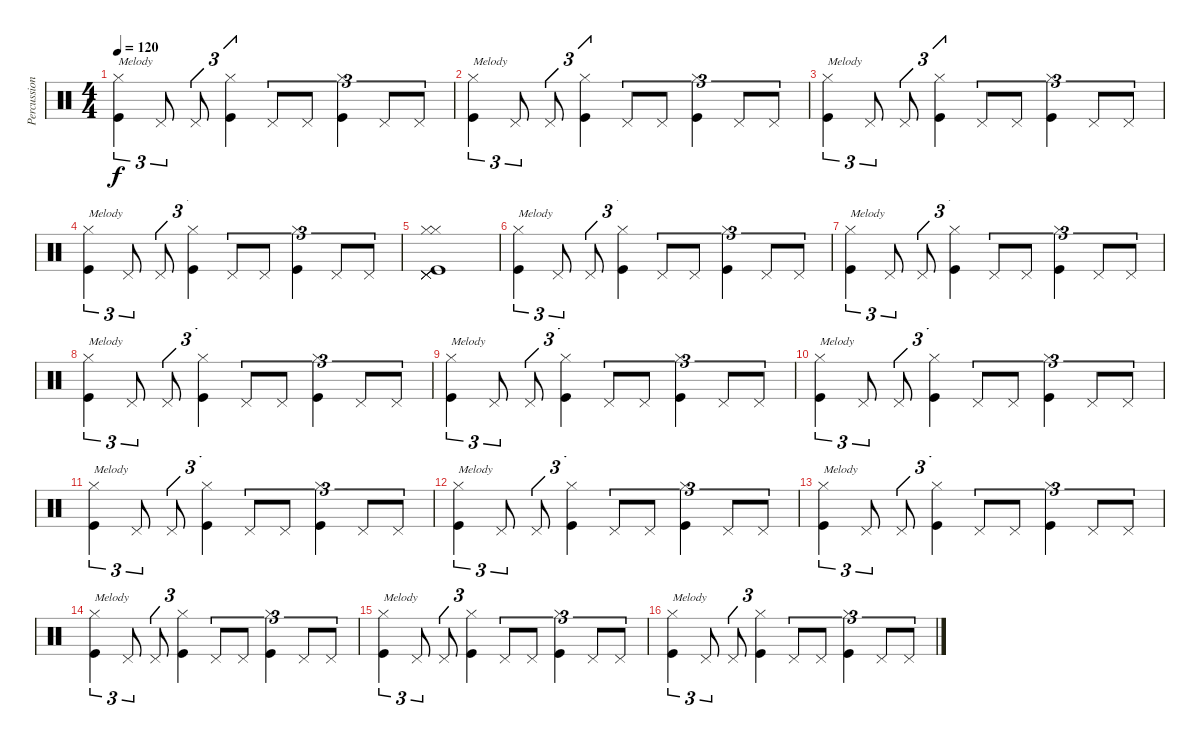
\track ("Percussions" "Percussion") {instrument percussion}
\staff {score}
\articulation defaults
\ts (4 4)
\tempo 120
\clef neutral
\ks c
("Hi-Hat (closed)" "Kick (hit)").4{tu (3 2) txt "Melody" dy f} "Pedal Hi-Hat (hit)".8{tu (3 2)} "Pedal Hi-Hat (hit)".8{tu (3 2)} ("Hi-Hat (closed)" "Kick (hit)").4{tu (3 2)} "Pedal Hi-Hat (hit)".8{tu (3 2)} "Pedal Hi-Hat (hit)".8{tu (3 2)} ("Hi-Hat (closed)" "Kick (hit)").4{tu (3 2)} "Pedal Hi-Hat (hit)".8{tu (3 2)} "Pedal Hi-Hat (hit)".8{tu (3 2)} |
("Hi-Hat (closed)" "Kick (hit)").4{tu (3 2) txt "Melody"} "Pedal Hi-Hat (hit)".8{tu (3 2)} "Pedal Hi-Hat (hit)".8{tu (3 2)} ("Hi-Hat (closed)" "Kick (hit)").4{tu (3 2)} "Pedal Hi-Hat (hit)".8{tu (3 2)} "Pedal Hi-Hat (hit)".8{tu (3 2)} ("Hi-Hat (closed)" "Kick (hit)").4{tu (3 2)} "Pedal Hi-Hat (hit)".8{tu (3 2)} "Pedal Hi-Hat (hit)".8{tu (3 2)} |
("Hi-Hat (closed)" "Kick (hit)").4{tu (3 2) txt "Melody"} "Pedal Hi-Hat (hit)".8{tu (3 2)} "Pedal Hi-Hat (hit)".8{tu (3 2)} ("Hi-Hat (closed)" "Kick (hit)").4{tu (3 2)} "Pedal Hi-Hat (hit)".8{tu (3 2)} "Pedal Hi-Hat (hit)".8{tu (3 2)} ("Hi-Hat (closed)" "Kick (hit)").4{tu (3 2)} "Pedal Hi-Hat (hit)".8{tu (3 2)} "Pedal Hi-Hat (hit)".8{tu (3 2)} |
("Hi-Hat (closed)" "Kick (hit)").4{tu (3 2) txt "Melody"} "Pedal Hi-Hat (hit)".8{tu (3 2)} "Pedal Hi-Hat (hit)".8{tu (3 2)} ("Hi-Hat (closed)" "Kick (hit)").4{tu (3 2)} "Pedal Hi-Hat (hit)".8{tu (3 2)} "Pedal Hi-Hat (hit)".8{tu (3 2)} ("Hi-Hat (closed)" "Kick (hit)").4{tu (3 2)} "Pedal Hi-Hat (hit)".8{tu (3 2)} "Pedal Hi-Hat (hit)".8{tu (3 2)} |
("Hi-Hat (closed)" "Pedal Hi-Hat (hit)" "Hi-Hat (closed)" "Pedal Hi-Hat (hit)" "Kick (hit)" "Pedal Hi-Hat (hit)").1 |
("Hi-Hat (closed)" "Kick (hit)").4{tu (3 2) txt "Melody"} "Pedal Hi-Hat (hit)".8{tu (3 2)} "Pedal Hi-Hat (hit)".8{tu (3 2)} ("Hi-Hat (closed)" "Kick (hit)").4{tu (3 2)} "Pedal Hi-Hat (hit)".8{tu (3 2)} "Pedal Hi-Hat (hit)".8{tu (3 2)} ("Hi-Hat (closed)" "Kick (hit)").4{tu (3 2)} "Pedal Hi-Hat (hit)".8{tu (3 2)} "Pedal Hi-Hat (hit)".8{tu (3 2)} |
("Hi-Hat (closed)" "Kick (hit)").4{tu (3 2) txt "Melody"} "Pedal Hi-Hat (hit)".8{tu (3 2)} "Pedal Hi-Hat (hit)".8{tu (3 2)} ("Hi-Hat (closed)" "Kick (hit)").4{tu (3 2)} "Pedal Hi-Hat (hit)".8{tu (3 2)} "Pedal Hi-Hat (hit)".8{tu (3 2)} ("Hi-Hat (closed)" "Kick (hit)").4{tu (3 2)} "Pedal Hi-Hat (hit)".8{tu (3 2)} "Pedal Hi-Hat (hit)".8{tu (3 2)} |
("Hi-Hat (closed)" "Kick (hit)").4{tu (3 2) txt "Melody"} "Pedal Hi-Hat (hit)".8{tu (3 2)} "Pedal Hi-Hat (hit)".8{tu (3 2)} ("Hi-Hat (closed)" "Kick (hit)").4{tu (3 2)} "Pedal Hi-Hat (hit)".8{tu (3 2)} "Pedal Hi-Hat (hit)".8{tu (3 2)} ("Hi-Hat (closed)" "Kick (hit)").4{tu (3 2)} "Pedal Hi-Hat (hit)".8{tu (3 2)} "Pedal Hi-Hat (hit)".8{tu (3 2)} |
("Hi-Hat (closed)" "Kick (hit)").4{tu (3 2) txt "Melody"} "Pedal Hi-Hat (hit)".8{tu (3 2)} "Pedal Hi-Hat (hit)".8{tu (3 2)} ("Hi-Hat (closed)" "Kick (hit)").4{tu (3 2)} "Pedal Hi-Hat (hit)".8{tu (3 2)} "Pedal Hi-Hat (hit)".8{tu (3 2)} ("Hi-Hat (closed)" "Kick (hit)").4{tu (3 2)} "Pedal Hi-Hat (hit)".8{tu (3 2)} "Pedal Hi-Hat (hit)".8{tu (3 2)} |
("Hi-Hat (closed)" "Kick (hit)").4{tu (3 2) txt "Melody"} "Pedal Hi-Hat (hit)".8{tu (3 2)} "Pedal Hi-Hat (hit)".8{tu (3 2)} ("Hi-Hat (closed)" "Kick (hit)").4{tu (3 2)} "Pedal Hi-Hat (hit)".8{tu (3 2)} "Pedal Hi-Hat (hit)".8{tu (3 2)} ("Hi-Hat (closed)" "Kick (hit)").4{tu (3 2)} "Pedal Hi-Hat (hit)".8{tu (3 2)} "Pedal Hi-Hat (hit)".8{tu (3 2)} |
("Hi-Hat (closed)" "Kick (hit)").4{tu (3 2) txt "Melody"} "Pedal Hi-Hat (hit)".8{tu (3 2)} "Pedal Hi-Hat (hit)".8{tu (3 2)} ("Hi-Hat (closed)" "Kick (hit)").4{tu (3 2)} "Pedal Hi-Hat (hit)".8{tu (3 2)} "Pedal Hi-Hat (hit)".8{tu (3 2)} ("Hi-Hat (closed)" "Kick (hit)").4{tu (3 2)} "Pedal Hi-Hat (hit)".8{tu (3 2)} "Pedal Hi-Hat (hit)".8{tu (3 2)} |
("Hi-Hat (closed)" "Kick (hit)").4{tu (3 2) txt "Melody"} "Pedal Hi-Hat (hit)".8{tu (3 2)} "Pedal Hi-Hat (hit)".8{tu (3 2)} ("Hi-Hat (closed)" "Kick (hit)").4{tu (3 2)} "Pedal Hi-Hat (hit)".8{tu (3 2)} "Pedal Hi-Hat (hit)".8{tu (3 2)} ("Hi-Hat (closed)" "Kick (hit)").4{tu (3 2)} "Pedal Hi-Hat (hit)".8{tu (3 2)} "Pedal Hi-Hat (hit)".8{tu (3 2)} |
("Hi-Hat (closed)" "Kick (hit)").4{tu (3 2) txt "Melody"} "Pedal Hi-Hat (hit)".8{tu (3 2)} "Pedal Hi-Hat (hit)".8{tu (3 2)} ("Hi-Hat (closed)" "Kick (hit)").4{tu (3 2)} "Pedal Hi-Hat (hit)".8{tu (3 2)} "Pedal Hi-Hat (hit)".8{tu (3 2)} ("Hi-Hat (closed)" "Kick (hit)").4{tu (3 2)} "Pedal Hi-Hat (hit)".8{tu (3 2)} "Pedal Hi-Hat (hit)".8{tu (3 2)} |
("Hi-Hat (closed)" "Kick (hit)").4{tu (3 2) txt "Melody"} "Pedal Hi-Hat (hit)".8{tu (3 2)} "Pedal Hi-Hat (hit)".8{tu (3 2)} ("Hi-Hat (closed)" "Kick (hit)").4{tu (3 2)} "Pedal Hi-Hat (hit)".8{tu (3 2)} "Pedal Hi-Hat (hit)".8{tu (3 2)} ("Hi-Hat (closed)" "Kick (hit)").4{tu (3 2)} "Pedal Hi-Hat (hit)".8{tu (3 2)} "Pedal Hi-Hat (hit)".8{tu (3 2)} |
("Hi-Hat (closed)" "Kick (hit)").4{tu (3 2) txt "Melody"} "Pedal Hi-Hat (hit)".8{tu (3 2)} "Pedal Hi-Hat (hit)".8{tu (3 2)} ("Hi-Hat (closed)" "Kick (hit)").4{tu (3 2)} "Pedal Hi-Hat (hit)".8{tu (3 2)} "Pedal Hi-Hat (hit)".8{tu (3 2)} ("Hi-Hat (closed)" "Kick (hit)").4{tu (3 2)} "Pedal Hi-Hat (hit)".8{tu (3 2)} "Pedal Hi-Hat (hit)".8{tu (3 2)} |
("Hi-Hat (closed)" "Kick (hit)").4{tu (3 2) txt "Melody"} "Pedal Hi-Hat (hit)".8{tu (3 2)} "Pedal Hi-Hat (hit)".8{tu (3 2)} ("Hi-Hat (closed)" "Kick (hit)").4{tu (3 2)} "Pedal Hi-Hat (hit)".8{tu (3 2)} "Pedal Hi-Hat (hit)".8{tu (3 2)} ("Hi-Hat (closed)" "Kick (hit)").4{tu (3 2)} "Pedal Hi-Hat (hit)".8{tu (3 2)} "Pedal Hi-Hat (hit)".8{tu (3 2)}
